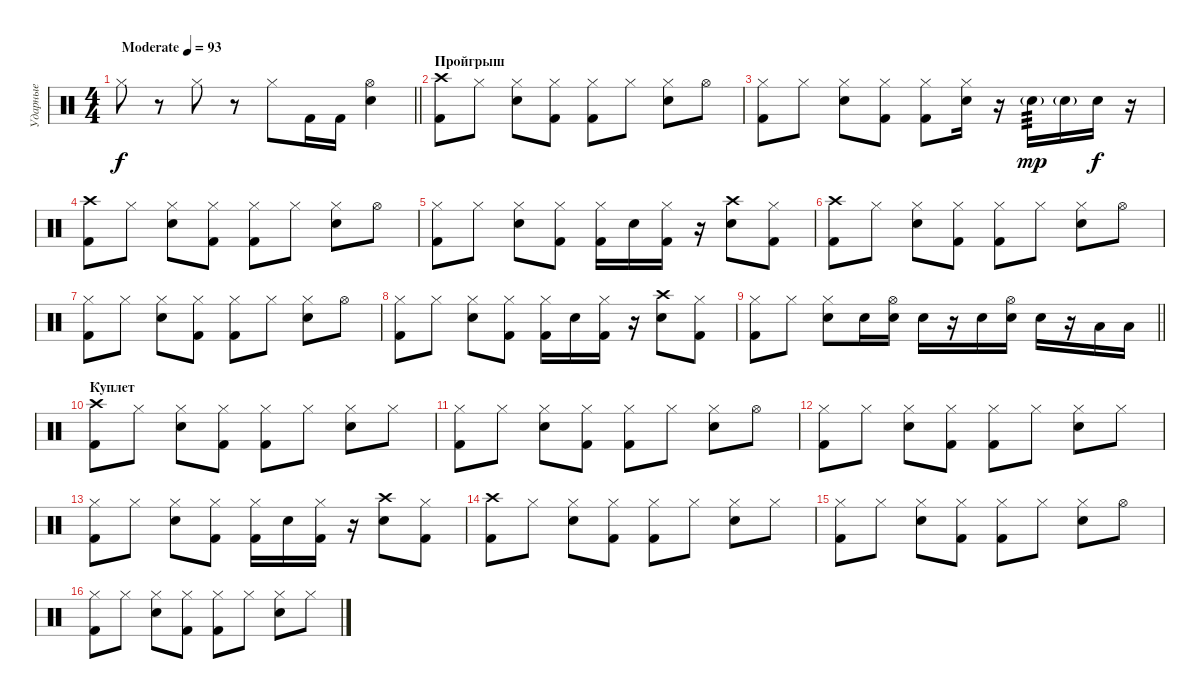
\track ("Ударные" "Ударные") {instrument percussion}
\staff {score}
\articulation defaults
\ts (4 4)
\tempo (93 "Moderate")
\clef neutral
\barLineRight lightlight
\ks c "Hi-Hat (closed)".8{dy f}
r.8 "Hi-Hat (closed)".8 r.8 "Hi-Hat (closed)".8 "Kick (hit) 2".16 "Kick (hit) 2".16 ("Electric Snare (hit)" "Hi-Hat (open)").4 |
\section ("" "Пройгрыш")
("Crash high (hit)" "Kick (hit) 2").8 "Hi-Hat (closed)".8 ("Hi-Hat (closed)" "Electric Snare (hit)").8 ("Hi-Hat (closed)" "Kick (hit) 2").8 ("Hi-Hat (closed)" "Kick (hit) 2").8 "Hi-Hat (closed)".8 ("Hi-Hat (closed)" "Electric Snare (hit)").8 "Hi-Hat (open)".8 |
("Hi-Hat (closed)" "Kick (hit) 2").8 "Hi-Hat (closed)".8 ("Hi-Hat (closed)" "Electric Snare (hit)").8 ("Hi-Hat (closed)" "Kick (hit) 2").8 ("Hi-Hat (closed)" "Kick (hit) 2").8 ("Hi-Hat (closed)" "Electric Snare (hit)").16 r.16 "Electric Snare (hit)"{g}.16{tp 3 dy mp} "Electric Snare (hit)"{g}.16 "Electric Snare (hit)".16{dy f} r.16 |
("Crash high (hit)" "Kick (hit) 2").8 "Hi-Hat (closed)".8 ("Hi-Hat (closed)" "Electric Snare (hit)").8 ("Hi-Hat (closed)" "Kick (hit) 2").8 ("Hi-Hat (closed)" "Kick (hit) 2").8 "Hi-Hat (closed)".8 ("Hi-Hat (closed)" "Electric Snare (hit)").8 "Hi-Hat (open)".8 |
("Hi-Hat (closed)" "Kick (hit) 2").8 "Hi-Hat (closed)".8 ("Hi-Hat (closed)" "Electric Snare (hit)").8 ("Hi-Hat (closed)" "Kick (hit) 2").8 ("Hi-Hat (closed)" "Kick (hit) 2").16 "Electric Snare (hit)".16 ("Hi-Hat (closed)" "Kick (hit) 2").16 r.16 ("Crash high (hit)" "Electric Snare (hit)").8 ("Hi-Hat (closed)" "Kick (hit) 2").8 |
("Crash high (hit)" "Kick (hit) 2").8 "Hi-Hat (closed)".8 ("Hi-Hat (closed)" "Electric Snare (hit)").8 ("Hi-Hat (closed)" "Kick (hit) 2").8 ("Hi-Hat (closed)" "Kick (hit) 2").8 "Hi-Hat (closed)".8 ("Hi-Hat (closed)" "Electric Snare (hit)").8 "Hi-Hat (open)".8 |
("Hi-Hat (closed)" "Kick (hit) 2").8 "Hi-Hat (closed)".8 ("Hi-Hat (closed)" "Electric Snare (hit)").8 ("Hi-Hat (closed)" "Kick (hit) 2").8 ("Hi-Hat (closed)" "Kick (hit) 2").8 "Hi-Hat (closed)".8 ("Hi-Hat (closed)" "Electric Snare (hit)").8 "Hi-Hat (open)".8 |
("Hi-Hat (closed)" "Kick (hit) 2").8 "Hi-Hat (closed)".8 ("Hi-Hat (closed)" "Electric Snare (hit)").8 ("Hi-Hat (closed)" "Kick (hit) 2").8 ("Hi-Hat (closed)" "Kick (hit) 2").16 "Electric Snare (hit)".16 ("Hi-Hat (closed)" "Kick (hit) 2").16 r.16 ("Crash high (hit)" "Electric Snare (hit)").8 ("Hi-Hat (closed)" "Kick (hit) 2").8 |
\barLineRight lightlight
("Hi-Hat (closed)" "Kick (hit) 2").8 "Hi-Hat (closed)".8 ("Hi-Hat (closed)" "Electric Snare (hit)").8 "Electric Snare (hit)".16 ("Hi-Hat (open)" "Electric Snare (hit)").16 "Electric Snare (hit)".16 r.16 "Electric Snare (hit)".16 ("Hi-Hat (open)" "Electric Snare (hit)").16 "Electric Snare (hit)".16 r.16 "Low Tom (hit)".16 "Low Tom (hit)".16 |
\section ("" "Куплет")
("Crash high (hit)" "Kick (hit) 2").8 "Hi-Hat (closed)".8 ("Hi-Hat (closed)" "Electric Snare (hit)").8 ("Hi-Hat (closed)" "Kick (hit) 2").8 ("Hi-Hat (closed)" "Kick (hit) 2").8 "Hi-Hat (closed)".8 ("Hi-Hat (closed)" "Electric Snare (hit)").8 "Hi-Hat (closed)".8 |
("Hi-Hat (closed)" "Kick (hit) 2").8 "Hi-Hat (closed)".8 ("Hi-Hat (closed)" "Electric Snare (hit)").8 ("Hi-Hat (closed)" "Kick (hit) 2").8 ("Hi-Hat (closed)" "Kick (hit) 2").8 "Hi-Hat (closed)".8 ("Hi-Hat (closed)" "Electric Snare (hit)").8 "Hi-Hat (open)".8 |
("Hi-Hat (closed)" "Kick (hit) 2").8 "Hi-Hat (closed)".8 ("Hi-Hat (closed)" "Electric Snare (hit)").8 ("Hi-Hat (closed)" "Kick (hit) 2").8 ("Hi-Hat (closed)" "Kick (hit) 2").8 "Hi-Hat (closed)".8 ("Hi-Hat (closed)" "Electric Snare (hit)").8 "Hi-Hat (closed)".8 |
("Hi-Hat (closed)" "Kick (hit) 2").8 "Hi-Hat (closed)".8 ("Hi-Hat (closed)" "Electric Snare (hit)").8 ("Hi-Hat (closed)" "Kick (hit) 2").8 ("Hi-Hat (closed)" "Kick (hit) 2").16 "Electric Snare (hit)".16 ("Hi-Hat (closed)" "Kick (hit) 2").16 r.16 ("Crash high (hit)" "Electric Snare (hit)").8 ("Hi-Hat (closed)" "Kick (hit) 2").8 |
("Crash high (hit)" "Kick (hit) 2").8 "Hi-Hat (closed)".8 ("Hi-Hat (closed)" "Electric Snare (hit)").8 ("Hi-Hat (closed)" "Kick (hit) 2").8 ("Hi-Hat (closed)" "Kick (hit) 2").8 "Hi-Hat (closed)".8 ("Hi-Hat (closed)" "Electric Snare (hit)").8 "Hi-Hat (closed)".8 |
("Hi-Hat (closed)" "Kick (hit) 2").8 "Hi-Hat (closed)".8 ("Hi-Hat (closed)" "Electric Snare (hit)").8 ("Hi-Hat (closed)" "Kick (hit) 2").8 ("Hi-Hat (closed)" "Kick (hit) 2").8 "Hi-Hat (closed)".8 ("Hi-Hat (closed)" "Electric Snare (hit)").8 "Hi-Hat (open)".8 |
("Hi-Hat (closed)" "Kick (hit) 2").8 "Hi-Hat (closed)".8 ("Hi-Hat (closed)" "Electric Snare (hit)").8 ("Hi-Hat (closed)" "Kick (hit) 2").8 ("Hi-Hat (closed)" "Kick (hit) 2").8 "Hi-Hat (closed)".8 ("Hi-Hat (closed)" "Electric Snare (hit)").8 "Hi-Hat (closed)".8
